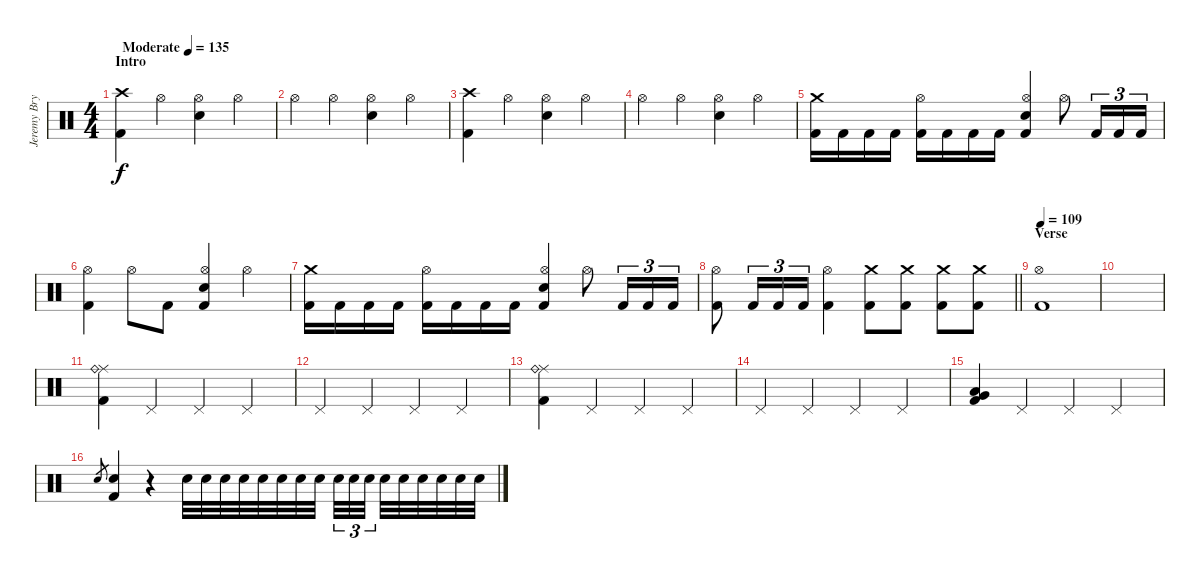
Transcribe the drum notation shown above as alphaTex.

\track ("Jeremy Bryan - Drums" "Jeremy Bry") {instrument percussion}
\staff {score}
\articulation defaults
\ts (4 4)
\section ("" "Intro")
\tempo (135 "Moderate")
\clef neutral
\ks c
("Crash high (hit)" "Kick (hit) 2").4{dy f} "Hi-Hat (open)".4 ("Hi-Hat (open)" "Electric Snare (hit)").4 "Hi-Hat (open)".4 |
"Hi-Hat (open)".4 "Hi-Hat (open)".4 ("Hi-Hat (open)" "Electric Snare (hit)").4 "Hi-Hat (open)".4 |
("Crash high (hit)" "Kick (hit) 2").4 "Hi-Hat (open)".4 ("Hi-Hat (open)" "Electric Snare (hit)").4 "Hi-Hat (open)".4 |
"Hi-Hat (open)".4 "Hi-Hat (open)".4 ("Hi-Hat (open)" "Electric Snare (hit)").4 "Hi-Hat (open)".4 |
("Crash medium (hit)" "Kick (hit) 2").16 "Kick (hit) 2".16 "Kick (hit) 2".16 "Kick (hit) 2".16 ("Hi-Hat (open)" "Kick (hit) 2").16 "Kick (hit) 2".16 "Kick (hit) 2".16 "Kick (hit) 2".16 ("Hi-Hat (open)" "Electric Snare (hit)" "Kick (hit) 2").4 "Hi-Hat (open)".8 "Kick (hit) 2".16{tu (3 2)} "Kick (hit) 2".16{tu (3 2)} "Kick (hit) 2".16{tu (3 2)} |
("Hi-Hat (open)" "Kick (hit) 2").4 "Hi-Hat (open)".8 "Kick (hit) 2".8 ("Hi-Hat (open)" "Electric Snare (hit)" "Kick (hit) 2").4 "Hi-Hat (open)".4 |
("Crash medium (hit)" "Kick (hit) 2").16 "Kick (hit) 2".16 "Kick (hit) 2".16 "Kick (hit) 2".16 ("Hi-Hat (open)" "Kick (hit) 2").16 "Kick (hit) 2".16 "Kick (hit) 2".16 "Kick (hit) 2".16 ("Hi-Hat (open)" "Electric Snare (hit)" "Kick (hit) 2").4 "Hi-Hat (open)".8 "Kick (hit) 2".16{tu (3 2)} "Kick (hit) 2".16{tu (3 2)} "Kick (hit) 2".16{tu (3 2)} |
\barLineRight lightlight
("Hi-Hat (open)" "Kick (hit) 2").8 "Kick (hit) 2".16{tu (3 2)} "Kick (hit) 2".16{tu (3 2)} "Kick (hit) 2".16{tu (3 2)} ("Hi-Hat (open)" "Kick (hit) 2").4 ("Crash medium (hit)" "Kick (hit) 2").8 ("Crash medium (hit)" "Kick (hit) 2").8 ("Crash medium (hit)" "Kick (hit) 2").8 ("Crash medium (hit)" "Kick (hit) 2").8 |
\section ("" "Verse")
\tempo 109
("Hi-Hat (open)" "Kick (hit) 2").1 |
|
("Ride (middle)" "Ride (bell)" "Kick (hit) 2").4 "Pedal Hi-Hat (hit)".4 "Pedal Hi-Hat (hit)".4 "Pedal Hi-Hat (hit)".4 |
"Pedal Hi-Hat (hit)".4 "Pedal Hi-Hat (hit)".4 "Pedal Hi-Hat (hit)".4 "Pedal Hi-Hat (hit)".4 |
("Ride (middle)" "Ride (bell)" "Kick (hit) 2").4 "Pedal Hi-Hat (hit)".4 "Pedal Hi-Hat (hit)".4 "Pedal Hi-Hat (hit)".4 |
"Pedal Hi-Hat (hit)".4 "Pedal Hi-Hat (hit)".4 "Pedal Hi-Hat (hit)".4 "Pedal Hi-Hat (hit)".4 |
("Low Tom (hit)" "Very Low Tom (hit)" "Kick (hit) 2").4 "Pedal Hi-Hat (hit)".4 "Pedal Hi-Hat (hit)".4 "Pedal Hi-Hat (hit)".4 |
"Electric Snare (hit)".8{gr} ("Electric Snare (hit)" "Kick (hit) 2").4 r.4 "Electric Snare (hit)".32 "Electric Snare (hit)".32 "Electric Snare (hit)".32 "Electric Snare (hit)".32 "Electric Snare (hit)".32 "Electric Snare (hit)".32 "Electric Snare (hit)".32 "Electric Snare (hit)".32 "Electric Snare (hit)".32{tu (3 2)} "Electric Snare (hit)".32{tu (3 2)} "Electric Snare (hit)".32{tu (3 2) beam splitsecondary} "Electric Snare (hit)".32 "Electric Snare (hit)".32 "Electric Snare (hit)".32 "Electric Snare (hit)".32 "Electric Snare (hit)".32 "Electric Snare (hit)".32
